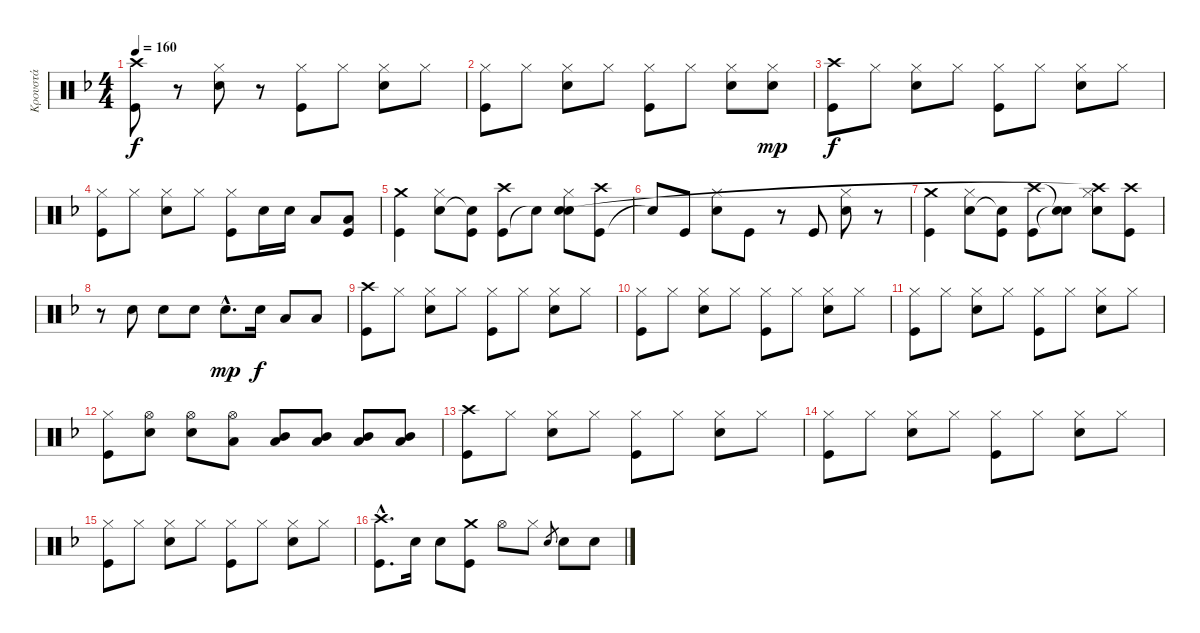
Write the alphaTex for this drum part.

\track ("Κρουστά" "Κρουστά") {instrument percussion}
\staff {score}
\articulation defaults
\ts (4 4)
\tempo 160
\clef neutral
\ks dminor
("Crash high (hit)" "Kick (hit)").8{dy f} r.8 ("Hi-Hat (closed)" "Snare (hit) 2").8 r.8 ("Hi-Hat (closed)" "Kick (hit)").8 "Hi-Hat (closed)".8 ("Hi-Hat (closed)" "Snare (hit) 2").8 "Hi-Hat (closed)".8 |
("Hi-Hat (closed)" "Kick (hit)").8 "Hi-Hat (closed)".8 ("Hi-Hat (closed)" "Snare (hit) 2").8 "Hi-Hat (closed)".8 ("Hi-Hat (closed)" "Kick (hit)").8 "Hi-Hat (closed)".8 ("Hi-Hat (closed)" "Snare (hit) 2").8 ("Hi-Hat (closed)" "Snare (hit) 2").8{dy mp} |
("Crash high (hit)" "Kick (hit)").8{dy f} "Hi-Hat (closed)".8 ("Hi-Hat (closed)" "Snare (hit) 2").8 "Hi-Hat (closed)".8 ("Hi-Hat (closed)" "Kick (hit)").8 "Hi-Hat (closed)".8 ("Hi-Hat (closed)" "Snare (hit) 2").8 "Hi-Hat (closed)".8 |
("Hi-Hat (closed)" "Kick (hit)").8 "Hi-Hat (closed)".8 ("Hi-Hat (closed)" "Snare (hit) 2").8 "Hi-Hat (closed)".8 ("Hi-Hat (closed)" "Kick (hit)").8 "Snare (hit) 2".16 "Snare (hit) 2".16 "Low Tom (hit)".8 ("Low Floor Tom (hit)" "Kick (hit)").8 |
("Kick (hit)" "Crash medium (hit)").4 ("Hi-Hat (closed)" "Snare (hit) 2").8 ("Kick (hit)" "Snare (hit)"{t}).8 ("Kick (hit)" "Crash high (hit)").8 "Snare (hit)"{t}.8 ("Hi-Hat (closed)" "Snare (hit) 2" "Snare (hit)").8 ("Kick (hit)" "Crash high (hit)").8 |
"Snare (hit)"{t}.8 "Kick (hit)".8 ("Hi-Hat (closed)" "Snare (hit) 2").8 "Kick (hit)".8 r.8 "Kick (hit)".8 ("Hi-Hat (closed)" "Snare (hit) 2").8 r.8 |
("Kick (hit)" "Crash medium (hit)").4 ("Hi-Hat (closed)" "Snare (hit) 2").8 ("Kick (hit)" "Snare (hit)"{t}).8 ("Kick (hit)" "Crash high (hit)").8 ("Snare (hit)"{t} "Snare (hit)"{t}).8 ("Hi-Hat (closed)" "Snare (hit) 2" "Crash high (hit)"{t}).8 ("Kick (hit)" "Crash high (hit)").8 |
r.8 "Snare (hit) 2".8 "Snare (hit) 2".8 "Snare (hit) 2".8 "Snare (hit) 2"{tr (38 32) hac}.8{d dy mp} "Snare (hit) 2".16{dy f} "Low Tom (hit)".8 "Low Floor Tom (hit)".8 |
("Crash high (hit)" "Kick (hit)").8 "Hi-Hat (closed)".8 ("Hi-Hat (closed)" "Snare (hit) 2").8 "Hi-Hat (closed)".8 ("Hi-Hat (closed)" "Kick (hit)").8 "Hi-Hat (closed)".8 ("Hi-Hat (closed)" "Snare (hit) 2").8 "Hi-Hat (closed)".8 |
("Hi-Hat (closed)" "Kick (hit)").8 "Hi-Hat (closed)".8 ("Hi-Hat (closed)" "Snare (hit) 2").8 "Hi-Hat (closed)".8 ("Hi-Hat (closed)" "Kick (hit)").8 "Hi-Hat (closed)".8 ("Hi-Hat (closed)" "Snare (hit) 2").8 "Hi-Hat (closed)".8 |
("Hi-Hat (closed)" "Kick (hit)").8 "Hi-Hat (closed)".8 ("Hi-Hat (closed)" "Snare (hit) 2").8 "Hi-Hat (closed)".8 ("Hi-Hat (closed)" "Kick (hit)").8 "Hi-Hat (closed)".8 ("Hi-Hat (closed)" "Snare (hit) 2").8 "Hi-Hat (closed)".8 |
("Hi-Hat (closed)" "Kick (hit)").8 ("Hi-Hat (open)" "Snare (hit) 2").8 ("Hi-Hat (open)" "Snare (hit) 2").8 ("Hi-Hat (open)" "Low Floor Tom (hit)").8 ("Mid Tom (hit)" "Low Floor Tom (hit)").8 ("Mid Tom (hit)" "Low Floor Tom (hit)").8 ("Mid Tom (hit)" "Low Floor Tom (hit)").8 ("Mid Tom (hit)" "Low Floor Tom (hit)").8 |
("Crash high (hit)" "Kick (hit)").8 "Hi-Hat (closed)".8 ("Hi-Hat (closed)" "Snare (hit) 2").8 "Hi-Hat (closed)".8 ("Hi-Hat (closed)" "Kick (hit)").8 "Hi-Hat (closed)".8 ("Hi-Hat (closed)" "Snare (hit) 2").8 "Hi-Hat (closed)".8 |
("Hi-Hat (closed)" "Kick (hit)").8 "Hi-Hat (closed)".8 ("Hi-Hat (closed)" "Snare (hit) 2").8 "Hi-Hat (closed)".8 ("Hi-Hat (closed)" "Kick (hit)").8 "Hi-Hat (closed)".8 ("Hi-Hat (closed)" "Snare (hit) 2").8 "Hi-Hat (closed)".8 |
("Hi-Hat (closed)" "Kick (hit)").8 "Hi-Hat (closed)".8 ("Hi-Hat (closed)" "Snare (hit) 2").8 "Hi-Hat (closed)".8 ("Hi-Hat (closed)" "Kick (hit)").8 "Hi-Hat (closed)".8 ("Hi-Hat (closed)" "Snare (hit) 2").8 "Hi-Hat (closed)".8 |
("Kick (hit)"{hac} "Crash high (hit)"{hac}).8{d} "Snare (hit) 2".16 "Snare (hit) 2".8 ("Kick (hit)" "Crash medium (hit)").8 "Hi-Hat (open)".8 "Hi-Hat (closed)".8 "Snare (hit) 2".8{gr} "Snare (hit) 2".8 "Snare (hit) 2".8
